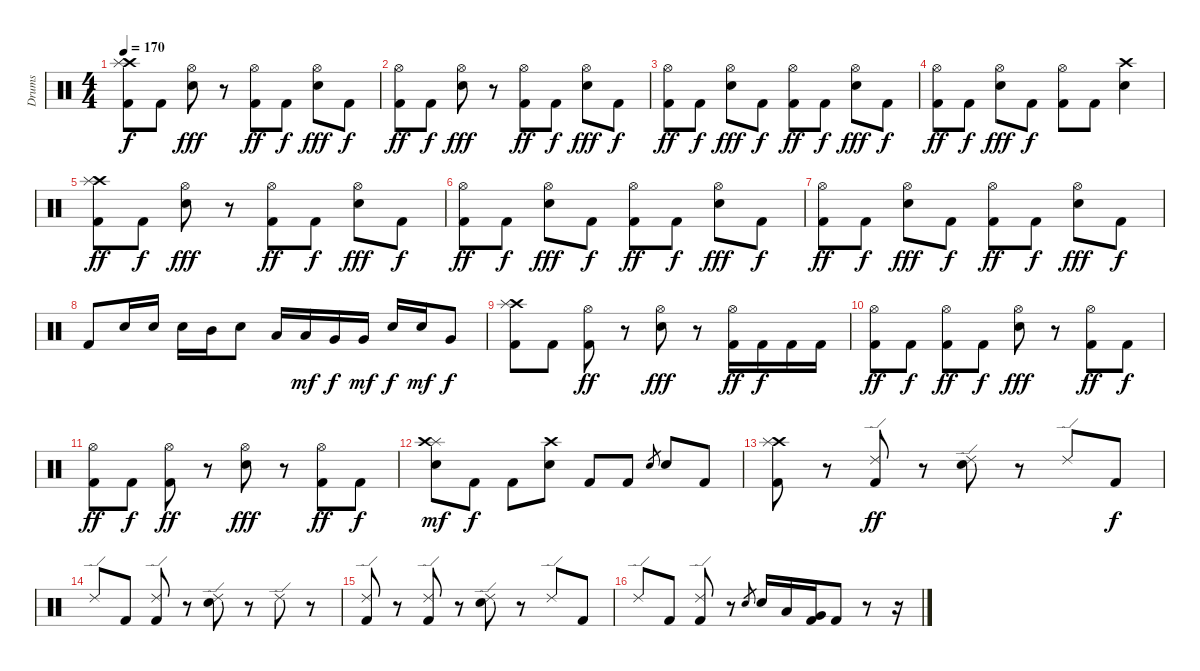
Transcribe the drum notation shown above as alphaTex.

\track ("Drums" "Drums") {instrument percussion}
\staff {score}
\articulation defaults
\ts (4 4)
\tempo 170
\clef neutral
\ks c
("Crash high (hit)" "Splash (hit)" "Kick (hit) 2").8{dy f} "Kick (hit) 2".8 ("Hi-Hat (open)" "Electric Snare (hit)").8{dy fff} r.8 ("Hi-Hat (open)" "Kick (hit) 2").8{dy ff} "Kick (hit) 2".8{dy f} ("Hi-Hat (open)" "Electric Snare (hit)").8{dy fff} "Kick (hit) 2".8{dy f} |
("Hi-Hat (open)" "Kick (hit) 2").8{dy ff} "Kick (hit) 2".8{dy f} ("Hi-Hat (open)" "Electric Snare (hit)").8{dy fff} r.8 ("Hi-Hat (open)" "Kick (hit) 2").8{dy ff} "Kick (hit) 2".8{dy f} ("Hi-Hat (open)" "Electric Snare (hit)").8{dy fff} "Kick (hit) 2".8{dy f} |
("Hi-Hat (open)" "Kick (hit) 2").8{dy ff} "Kick (hit) 2".8{dy f} ("Hi-Hat (open)" "Electric Snare (hit)").8{dy fff} "Kick (hit) 2".8{dy f} ("Hi-Hat (open)" "Kick (hit) 2").8{dy ff} "Kick (hit) 2".8{dy f} ("Hi-Hat (open)" "Electric Snare (hit)").8{dy fff} "Kick (hit) 2".8{dy f} |
("Hi-Hat (open)" "Kick (hit) 2").8{dy ff} "Kick (hit) 2".8{dy f} ("Hi-Hat (open)" "Electric Snare (hit)").8{dy fff} "Kick (hit) 2".8{dy f} ("Hi-Hat (open)" "Kick (hit) 2").8 "Kick (hit) 2".8 ("Crash high (hit)" "Electric Snare (hit)").4 |
("Crash high (hit)" "Splash (hit)" "Kick (hit) 2").8{dy ff} "Kick (hit) 2".8{dy f} ("Hi-Hat (open)" "Electric Snare (hit)").8{dy fff} r.8 ("Hi-Hat (open)" "Kick (hit) 2").8{dy ff} "Kick (hit) 2".8{dy f} ("Hi-Hat (open)" "Electric Snare (hit)").8{dy fff} "Kick (hit) 2".8{dy f} |
("Hi-Hat (open)" "Kick (hit) 2").8{dy ff} "Kick (hit) 2".8{dy f} ("Hi-Hat (open)" "Electric Snare (hit)").8{dy fff} "Kick (hit) 2".8{dy f} ("Hi-Hat (open)" "Kick (hit) 2").8{dy ff} "Kick (hit) 2".8{dy f} ("Hi-Hat (open)" "Electric Snare (hit)").8{dy fff} "Kick (hit) 2".8{dy f} |
("Hi-Hat (open)" "Kick (hit) 2").8{dy ff} "Kick (hit) 2".8{dy f} ("Hi-Hat (open)" "Electric Snare (hit)").8{dy fff} "Kick (hit) 2".8{dy f} ("Hi-Hat (open)" "Kick (hit) 2").8{dy ff} "Kick (hit) 2".8{dy f} ("Hi-Hat (open)" "Electric Snare (hit)").8{dy fff} "Kick (hit) 2".8{dy f} |
"Kick (hit) 2".8 "Electric Snare (hit)".16 "Electric Snare (hit)".16 "Electric Snare (hit)".16 "Mid Tom (hit)".16 "Electric Snare (hit)".8 "Low Tom (hit)".16 "Low Tom (hit)".16{dy mf} "Very Low Tom (hit)".16{dy f} "Very Low Tom (hit)".16{dy mf} "Electric Snare (hit)".16{dy f} "Electric Snare (hit)".16{dy mf} "Very Low Tom (hit)".8{dy f} |
("Crash high (hit)" "Splash (hit)" "Kick (hit) 2").8 "Kick (hit) 2".8 ("Hi-Hat (open)" "Kick (hit) 2").8{dy ff} r.8 ("Hi-Hat (open)" "Electric Snare (hit)").8{dy fff} r.8 ("Hi-Hat (open)" "Kick (hit) 2").16{dy ff} "Kick (hit) 2".16{dy f} "Kick (hit) 2".16 "Kick (hit) 2".16 |
("Hi-Hat (open)" "Kick (hit) 2").8{dy ff} "Kick (hit) 2".8{dy f} ("Hi-Hat (open)" "Kick (hit) 2").8{dy ff} "Kick (hit) 2".8{dy f} ("Hi-Hat (open)" "Electric Snare (hit)").8{dy fff} r.8 ("Hi-Hat (open)" "Kick (hit) 2").8{dy ff} "Kick (hit) 2".8{dy f} |
("Hi-Hat (open)" "Kick (hit) 2").8{dy ff} "Kick (hit) 2".8{dy f} ("Hi-Hat (open)" "Kick (hit) 2").8{dy ff} r.8 ("Hi-Hat (open)" "Electric Snare (hit)").8{dy fff} r.8 ("Hi-Hat (open)" "Kick (hit) 2").8{dy ff} "Kick (hit) 2".8{dy f} |
("Splash (hit)" "Crash high (hit)" "Electric Snare (hit)").8{dy mf} "Kick (hit) 2".8{dy f} "Kick (hit) 2".8 ("Crash high (hit)" "Electric Snare (hit)").8 "Kick (hit) 2".8 "Kick (hit) 2".8 "Electric Snare (hit)".8{gr} "Electric Snare (hit)".8 "Kick (hit) 2".8 |
("Crash high (hit)" "Splash (hit)" "Kick (hit) 2").8 r.8 ("Ride (edge) 2" "Kick (hit) 2").8{dy ff} r.8 ("Ride (edge) 2" "Electric Snare (hit)").8 r.8 "Ride (edge) 2".8 "Kick (hit) 2".8{dy f} |
"Ride (edge) 2".8 "Kick (hit) 2".8 ("Ride (edge) 2" "Kick (hit) 2").8 r.8 ("Ride (edge) 2" "Electric Snare (hit)").8 r.8 "Ride (edge) 2".8 r.8 |
("Ride (edge) 2" "Kick (hit) 2").8 r.8 ("Ride (edge) 2" "Kick (hit) 2").8 r.8 ("Ride (edge) 2" "Electric Snare (hit)").8 r.8 "Ride (edge) 2".8 "Kick (hit) 2".8 |
"Ride (edge) 2".8 "Kick (hit) 2".8 ("Ride (edge) 2" "Kick (hit) 2").8 r.8 "Electric Snare (hit)".8{gr} "Electric Snare (hit)".16 "Low Tom (hit)".16 ("Very Low Tom (hit)" "Kick (hit) 2").16 "Kick (hit) 2".8 r.8 r.16
